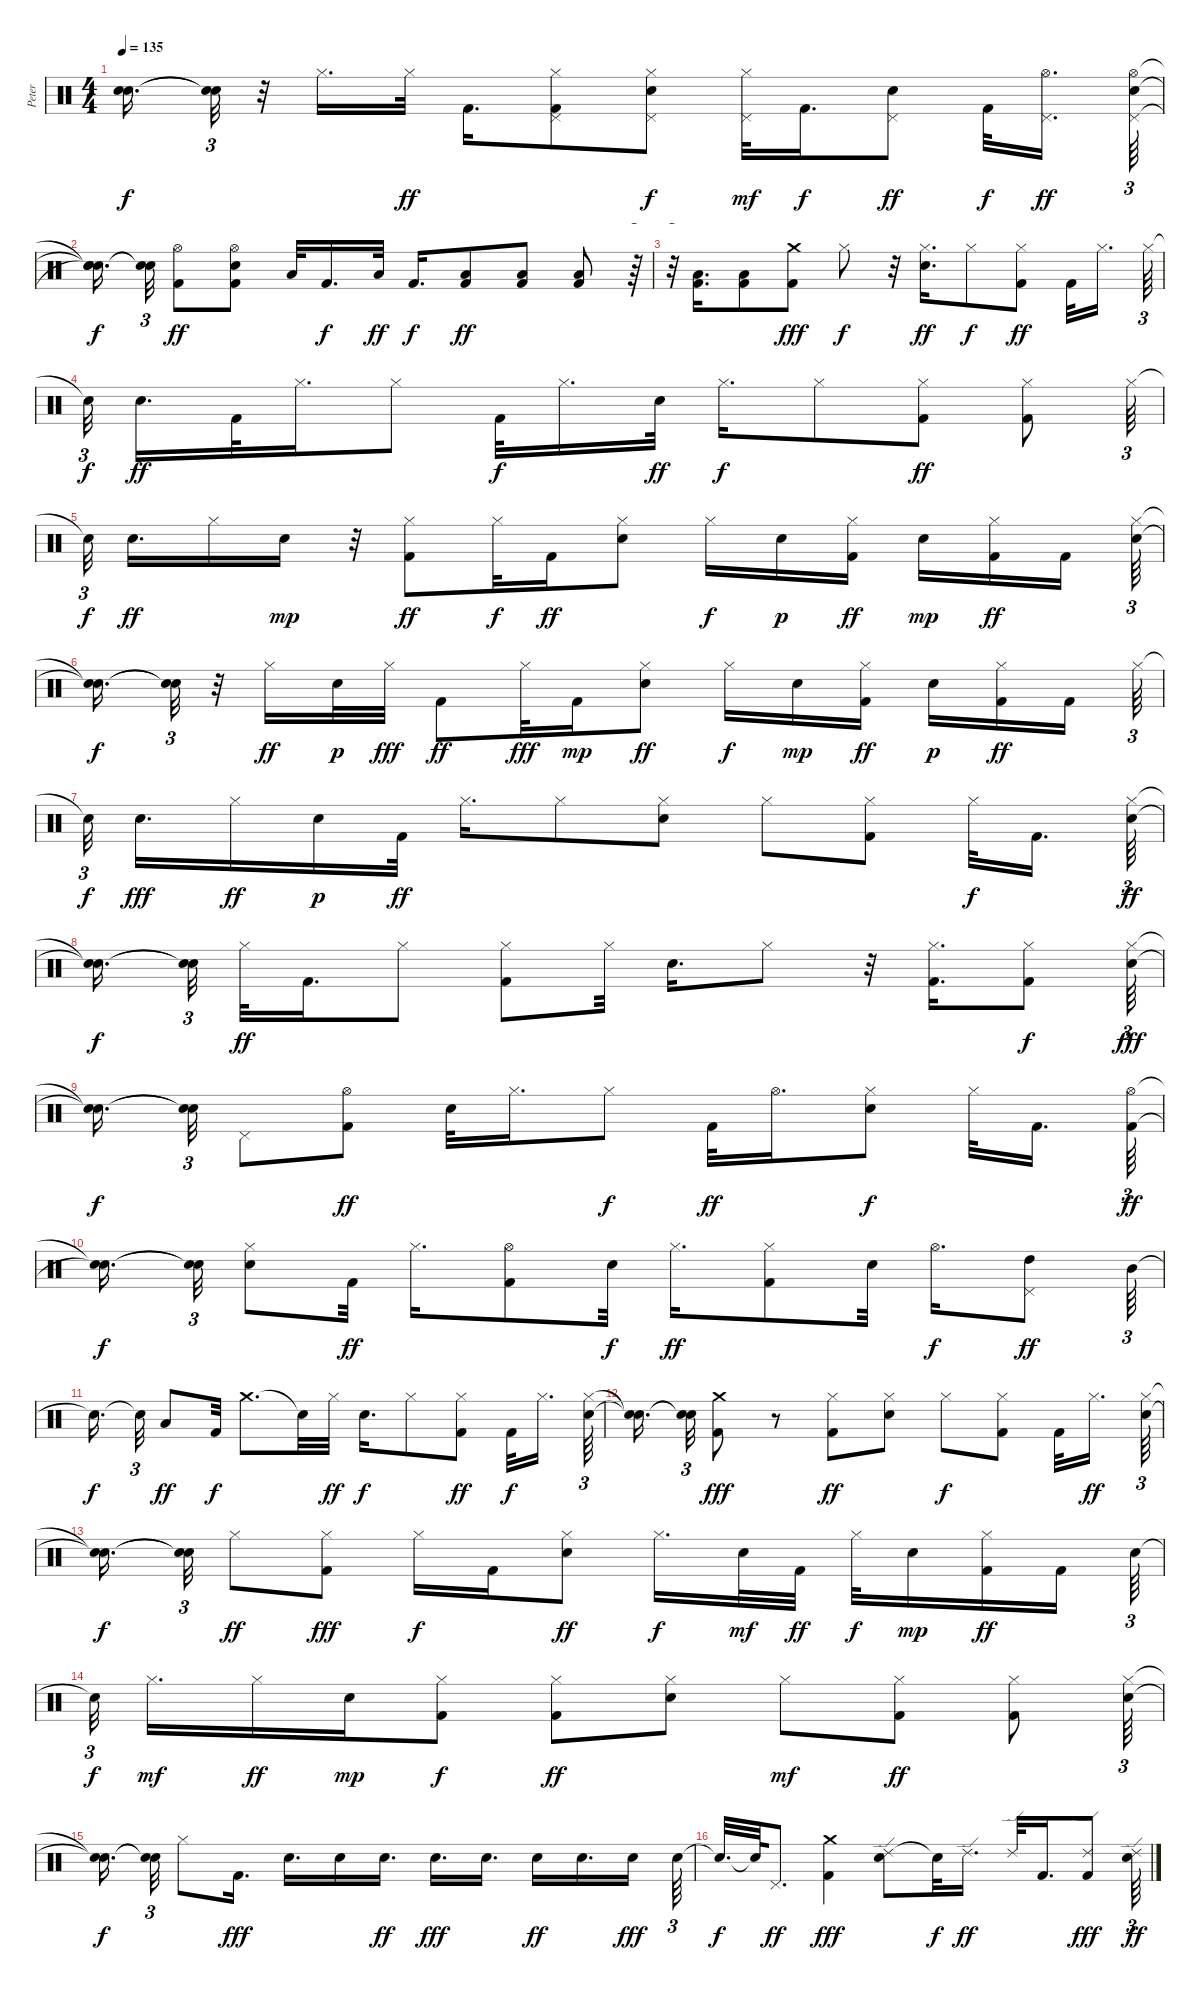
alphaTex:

\track ("Peter" "Peter") {instrument percussion}
\staff {score}
\articulation defaults
\ts (4 4)
\tempo 135
\clef neutral
\ks c
("Snare (hit)"{t} "Snare (hit)"{t}).16{d dy f} ("Snare (hit)"{t} "Snare (hit)"{t}).32{tu (3 2)} r.32 "Hi-Hat (closed)".16{d} "Hi-Hat (closed)".32{dy ff} "Kick (hit) 2".16{d} ("Kick (hit) 2" "Hi-Hat (closed)" "Pedal Hi-Hat (hit)").8 ("Hi-Hat (closed)" "Electric Snare (hit)" "Pedal Hi-Hat (hit)").8{dy f} ("Hi-Hat (closed)" "Pedal Hi-Hat (hit)").32{dy mf} "Kick (hit) 2".16{d dy f} ("Electric Snare (hit)" "Pedal Hi-Hat (hit)").8{dy ff} "Kick (hit) 2".32{dy f} ("Hi-Hat (open)" "Pedal Hi-Hat (hit)").16{d dy ff} ("Hi-Hat (open)" "Pedal Hi-Hat (hit)" "Electric Snare (hit)").64{tu (3 2)} |
("Snare (hit)"{t} "Snare (hit)"{t} "Snare (hit)"{t}).16{d dy f} ("Snare (hit)"{t} "Snare (hit)"{t}).32{tu (3 2)} ("Hi-Hat (open)" "Kick (hit) 2").8{dy ff} ("Electric Snare (hit)" "Hi-Hat (open)" "Kick (hit) 2").8 "Low Tom (hit)".32 "Kick (hit) 2".16{d dy f} "Low Tom (hit)".32{dy ff} "Kick (hit) 2".16{d dy f} ("Low Tom (hit)" "Kick (hit) 2").8{dy ff} ("Kick (hit) 2" "Low Tom (hit)").8 ("Low Tom (hit)" "Kick (hit) 2").8 r.64{tu (3 2)} |
r.32{tu (3 2)} ("Low Tom (hit)" "Kick (hit) 2").16{d} ("Kick (hit) 2" "Low Tom (hit)").8 ("Kick (hit) 2" "Crash medium (hit)").8{dy fff} "Hi-Hat (closed)".8{dy f} r.32 ("Hi-Hat (closed)" "Electric Snare (hit)").16{d dy ff} "Hi-Hat (closed)".8{dy f} ("Hi-Hat (closed)" "Kick (hit) 2").8{dy ff} "Kick (hit) 2".32 "Hi-Hat (closed)".16{d} "Hi-Hat (closed)".64{tu (3 2)} |
"Snare (hit)"{t}.32{tu (3 2) dy f} "Electric Snare (hit)".16{d dy ff} "Kick (hit) 2".32 "Hi-Hat (closed)".16{d} "Hi-Hat (closed)".8 "Kick (hit) 2".32{dy f} "Hi-Hat (closed)".16{d} "Electric Snare (hit)".32{dy ff} "Hi-Hat (closed)".16{d dy f} "Hi-Hat (closed)".8 ("Hi-Hat (closed)" "Kick (hit) 2").8{dy ff} ("Hi-Hat (closed)" "Kick (hit) 2").8 "Hi-Hat (closed)".64{tu (3 2)} |
"Snare (hit)"{t}.32{tu (3 2) dy f} "Electric Snare (hit)".16{d dy ff} "Hi-Hat (closed)".16 "Electric Snare (hit)".16{dy mp} r.32 ("Kick (hit) 2" "Hi-Hat (closed)").8{dy ff} "Hi-Hat (closed)".32{dy f} "Kick (hit) 2".16{dy ff} ("Hi-Hat (closed)" "Electric Snare (hit)").8 "Hi-Hat (closed)".16{dy f} "Electric Snare (hit)".16{dy p} ("Kick (hit) 2" "Hi-Hat (closed)").16{dy ff} "Electric Snare (hit)".16{dy mp} ("Hi-Hat (closed)" "Kick (hit) 2").16{dy ff} "Kick (hit) 2".16 ("Electric Snare (hit)" "Hi-Hat (closed)").64{tu (3 2)} |
("Snare (hit)"{t} "Snare (hit)"{t}).16{d dy f} ("Snare (hit)"{t} "Snare (hit)"{t}).32{tu (3 2)} r.32 "Hi-Hat (closed)".16{dy ff} "Electric Snare (hit)".32{dy p} "Hi-Hat (closed)".32{dy fff} "Kick (hit) 2".8{dy ff} "Hi-Hat (closed)".32{dy fff} "Kick (hit) 2".16{dy mp} ("Hi-Hat (closed)" "Electric Snare (hit)").8{dy ff} "Hi-Hat (closed)".16{dy f} "Electric Snare (hit)".16{dy mp} ("Kick (hit) 2" "Hi-Hat (closed)").16{dy ff} "Electric Snare (hit)".16{dy p} ("Hi-Hat (closed)" "Kick (hit) 2").16{dy ff} "Kick (hit) 2".16 "Hi-Hat (closed)".64{tu (3 2)} |
"Snare (hit)"{t}.32{tu (3 2) dy f} "Electric Snare (hit)".16{d dy fff} "Hi-Hat (closed)".16{dy ff} "Electric Snare (hit)".16{dy p} "Kick (hit) 2".32{dy ff} "Hi-Hat (closed)".16{d} "Hi-Hat (closed)".8 ("Electric Snare (hit)" "Hi-Hat (closed)").8 "Hi-Hat (closed)".8 ("Kick (hit) 2" "Hi-Hat (closed)").8 "Hi-Hat (closed)".32{dy f} "Kick (hit) 2".16{d} ("Electric Snare (hit)" "Hi-Hat (closed)").64{tu (3 2) dy ff} |
("Snare (hit)"{t} "Snare (hit)"{t}).16{d dy f} ("Snare (hit)"{t} "Snare (hit)"{t}).32{tu (3 2)} "Hi-Hat (closed)".32{dy ff} "Kick (hit) 2".16{d} "Hi-Hat (closed)".8 ("Hi-Hat (closed)" "Kick (hit) 2").8 "Hi-Hat (closed)".32 "Electric Snare (hit)".16{d} "Hi-Hat (closed)".8 r.32 ("Kick (hit) 2" "Hi-Hat (closed)").16{d} ("Kick (hit) 2" "Hi-Hat (closed)").8{dy f} ("Hi-Hat (closed)" "Electric Snare (hit)").64{tu (3 2) dy fff} |
("Snare (hit)"{t} "Snare (hit)"{t}).16{d dy f} ("Snare (hit)"{t} "Snare (hit)"{t}).32{tu (3 2)} "Pedal Hi-Hat (hit)".8 ("Hi-Hat (open)" "Kick (hit) 2").8{dy ff} "Electric Snare (hit)".32 "Hi-Hat (closed)".16{d} "Hi-Hat (closed)".8{dy f} "Kick (hit) 2".32{dy ff} "Hi-Hat (open)".16{d} ("Electric Snare (hit)" "Hi-Hat (closed)").8{dy f} "Hi-Hat (closed)".32 "Kick (hit) 2".16{d} ("Hi-Hat (open)" "Kick (hit) 2").64{tu (3 2) dy ff} |
("Snare (hit)"{t} "Snare (hit)"{t}).16{d dy f} ("Snare (hit)"{t} "Snare (hit)"{t}).32{tu (3 2)} ("Hi-Hat (closed)" "Electric Snare (hit)").8 "Kick (hit) 2".32{dy ff} "Hi-Hat (closed)".16{d} ("Hi-Hat (open)" "Kick (hit) 2").8 "Electric Snare (hit)".32{dy f} "Hi-Hat (closed)".16{d dy ff} ("Kick (hit) 2" "Hi-Hat (closed)").8 "Electric Snare (hit)".32 "Hi-Hat (open)".16{d dy f} ("Pedal Hi-Hat (hit)" "High Tom (hit)").8{dy ff} "Mid Tom (hit)".64{tu (3 2)} |
"Snare (hit)"{t}.16{d dy f} "Snare (hit)"{t}.32{tu (3 2)} "Low Tom (hit)".8{dy ff} "Kick (hit) 2".32{dy f} "Crash medium (hit)".8{d} "Snare (hit)"{t}.32 "Hi-Hat (closed)".32{dy ff} "Electric Snare (hit)".16{d dy f} "Hi-Hat (closed)".8 ("Kick (hit) 2" "Hi-Hat (closed)").8{dy ff} "Kick (hit) 2".32{dy f} "Hi-Hat (closed)".16{d} ("Hi-Hat (closed)" "Electric Snare (hit)").64{tu (3 2)} |
("Snare (hit)"{t} "Snare (hit)"{t}).16{d} ("Snare (hit)"{t} "Snare (hit)"{t}).32{tu (3 2)} ("Kick (hit) 2" "Crash medium (hit)").8{dy fff} r.8 ("Hi-Hat (closed)" "Kick (hit) 2").8{dy ff} ("Hi-Hat (closed)" "Electric Snare (hit)").8 "Hi-Hat (closed)".8{dy f} ("Kick (hit) 2" "Hi-Hat (closed)").8 "Kick (hit) 2".32 "Hi-Hat (closed)".16{d dy ff} ("Electric Snare (hit)" "Hi-Hat (closed)").64{tu (3 2)} |
("Snare (hit)"{t} "Snare (hit)"{t}).16{d dy f} ("Snare (hit)"{t} "Snare (hit)"{t}).32{tu (3 2)} "Hi-Hat (closed)".8{dy ff} ("Kick (hit) 2" "Hi-Hat (closed)").8{dy fff} "Hi-Hat (closed)".16{dy f} "Kick (hit) 2".16 ("Electric Snare (hit)" "Hi-Hat (closed)").8{dy ff} "Hi-Hat (closed)".16{d dy f} "Electric Snare (hit)".32{dy mf} "Kick (hit) 2".32{dy ff} "Hi-Hat (closed)".32{dy f} "Electric Snare (hit)".16{dy mp} ("Kick (hit) 2" "Hi-Hat (closed)").16{dy ff} "Kick (hit) 2".16 "Electric Snare (hit)".64{tu (3 2)} |
"Snare (hit)"{t}.32{tu (3 2) dy f} "Hi-Hat (closed)".16{d dy mf} "Hi-Hat (closed)".16{dy ff} "Electric Snare (hit)".16{dy mp} ("Hi-Hat (closed)" "Kick (hit) 2").8{dy f} ("Kick (hit) 2" "Hi-Hat (closed)").8{dy ff} ("Electric Snare (hit)" "Hi-Hat (closed)").8 "Hi-Hat (closed)".8{dy mf} ("Hi-Hat (closed)" "Kick (hit) 2").8{dy ff} ("Kick (hit) 2" "Hi-Hat (closed)").8 ("Electric Snare (hit)" "Hi-Hat (closed)").64{tu (3 2)} |
("Snare (hit)"{t} "Snare (hit)"{t}).16{d dy f} ("Snare (hit)"{t} "Snare (hit)"{t}).32{tu (3 2)} "Hi-Hat (closed)".8 "Kick (hit) 2".16{d dy fff} "Electric Snare (hit)".16{d} "Electric Snare (hit)".16 "Electric Snare (hit)".16{d dy ff} "Electric Snare (hit)".16{d dy fff} "Electric Snare (hit)".16{d} "Electric Snare (hit)".16{dy ff} "Electric Snare (hit)".16{d} "Electric Snare (hit)".16{dy fff} "Electric Snare (hit)".64{tu (3 2)} |
"Snare (hit)"{t}.32{d dy f} "Snare (hit)"{t}.64 "Pedal Hi-Hat (hit)".8{d dy ff} ("Kick (hit) 2" "Crash medium (hit)").4{dy fff} ("Ride (edge) 2" "Electric Snare (hit)").8 "Snare (hit)"{t}.32{dy f} "Ride (edge) 2".16{d dy ff} "Ride (edge) 2".32 "Kick (hit) 2".16{d} ("Ride (edge) 2" "Kick (hit) 2").8{dy fff} ("Electric Snare (hit)" "Ride (edge) 2").64{tu (3 2) dy ff}
